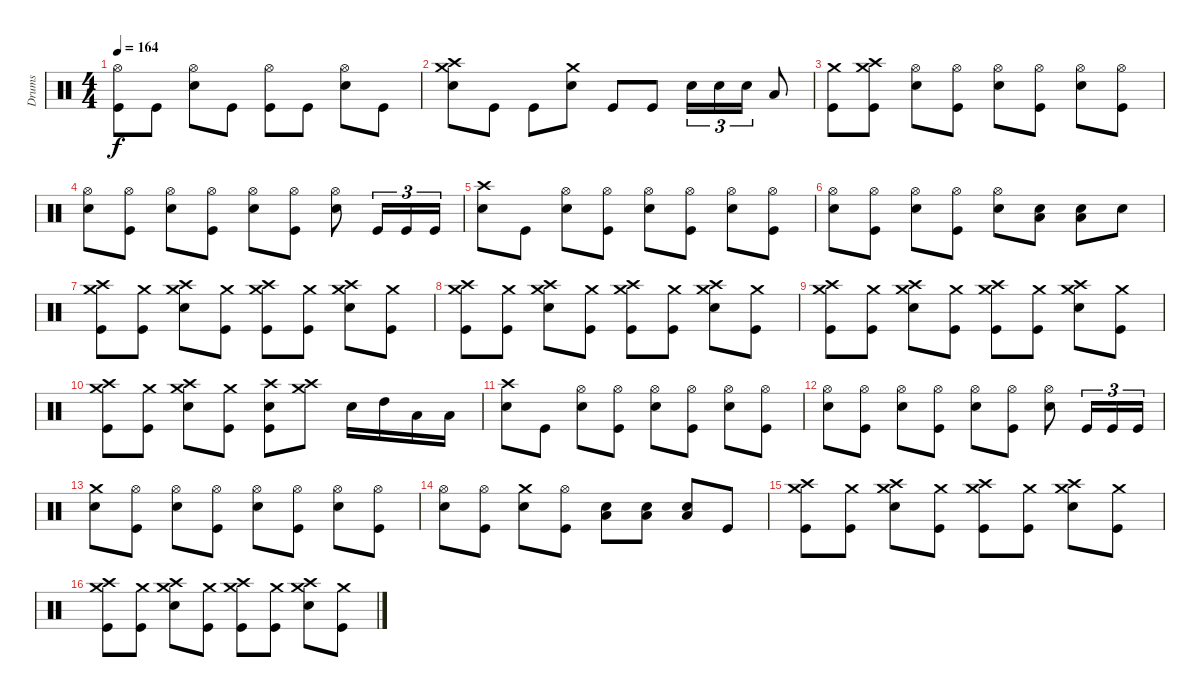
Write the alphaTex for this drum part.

\track ("Drums" "Drums") {instrument percussion}
\staff {score}
\articulation defaults
\ts (4 4)
\tempo 164
\clef neutral
\ks c
("Hi-Hat (open)" "Kick (hit)").8{dy f} "Kick (hit)".8 ("Snare (hit) 2" "Hi-Hat (open)").8 "Kick (hit)".8 ("Hi-Hat (open)" "Kick (hit)").8 "Kick (hit)".8 ("Snare (hit) 2" "Hi-Hat (open)").8 "Kick (hit)".8 |
("Snare (hit) 2" "Crash medium (hit)" "Crash high (hit)").8 "Kick (hit)".8 "Kick (hit)".8 ("Snare (hit) 2" "Crash medium (hit)").8 "Kick (hit)".8 "Kick (hit)".8 "Snare (hit) 2".16{tu (3 2)} "Snare (hit) 2".16{tu (3 2)} "Snare (hit) 2".16{tu (3 2)} "Low Tom (hit)".8 |
("Crash medium (hit)" "Kick (hit)").8 ("Crash medium (hit)" "Kick (hit)" "Crash high (hit)").8 ("Snare (hit) 2" "Hi-Hat (open)").8 ("Hi-Hat (open)" "Kick (hit)").8 ("Snare (hit) 2" "Hi-Hat (open)").8 ("Hi-Hat (open)" "Kick (hit)").8 ("Snare (hit) 2" "Hi-Hat (open)").8 ("Hi-Hat (open)" "Kick (hit)").8 |
("Snare (hit) 2" "Hi-Hat (open)").8 ("Hi-Hat (open)" "Kick (hit)").8 ("Snare (hit) 2" "Hi-Hat (open)").8 ("Hi-Hat (open)" "Kick (hit)").8 ("Snare (hit) 2" "Hi-Hat (open)").8 ("Hi-Hat (open)" "Kick (hit)").8 ("Snare (hit) 2" "Hi-Hat (open)").8 "Kick (hit)".16{tu (3 2)} "Kick (hit)".16{tu (3 2)} "Kick (hit)".16{tu (3 2)} |
("Snare (hit) 2" "Crash high (hit)").8 "Kick (hit)".8 ("Snare (hit) 2" "Hi-Hat (open)").8 ("Hi-Hat (open)" "Kick (hit)").8 ("Snare (hit) 2" "Hi-Hat (open)").8 ("Hi-Hat (open)" "Kick (hit)").8 ("Snare (hit) 2" "Hi-Hat (open)").8 ("Hi-Hat (open)" "Kick (hit)").8 |
("Snare (hit) 2" "Hi-Hat (open)").8 ("Hi-Hat (open)" "Kick (hit)").8 ("Snare (hit) 2" "Hi-Hat (open)").8 ("Hi-Hat (open)" "Kick (hit)").8 ("Snare (hit) 2" "Hi-Hat (open)").8 ("Snare (hit) 2" "Low Floor Tom (hit)").8 ("Snare (hit) 2" "Low Floor Tom (hit)").8 "Snare (hit) 2".8 |
("Crash medium (hit)" "Kick (hit)" "Crash high (hit)").8 ("Crash medium (hit)" "Kick (hit)").8 ("Snare (hit) 2" "Crash medium (hit)" "Crash high (hit)").8 ("Crash medium (hit)" "Kick (hit)").8 ("Crash medium (hit)" "Kick (hit)" "Crash high (hit)").8 ("Crash medium (hit)" "Kick (hit)").8 ("Snare (hit) 2" "Crash medium (hit)" "Crash high (hit)").8 ("Crash medium (hit)" "Kick (hit)").8 |
("Crash medium (hit)" "Kick (hit)" "Crash high (hit)").8 ("Crash medium (hit)" "Kick (hit)").8 ("Snare (hit) 2" "Crash medium (hit)" "Crash high (hit)").8 ("Crash medium (hit)" "Kick (hit)").8 ("Crash medium (hit)" "Kick (hit)" "Crash high (hit)").8 ("Crash medium (hit)" "Kick (hit)").8 ("Snare (hit) 2" "Crash medium (hit)" "Crash high (hit)").8 ("Crash medium (hit)" "Kick (hit)").8 |
("Crash medium (hit)" "Kick (hit)" "Crash high (hit)").8 ("Crash medium (hit)" "Kick (hit)").8 ("Snare (hit) 2" "Crash medium (hit)" "Crash high (hit)").8 ("Crash medium (hit)" "Kick (hit)").8 ("Crash medium (hit)" "Kick (hit)" "Crash high (hit)").8 ("Crash medium (hit)" "Kick (hit)").8 ("Snare (hit) 2" "Crash medium (hit)" "Crash high (hit)").8 ("Crash medium (hit)" "Kick (hit)").8 |
("Crash medium (hit)" "Kick (hit)" "Crash high (hit)").8 ("Crash medium (hit)" "Kick (hit)").8 ("Snare (hit) 2" "Crash medium (hit)" "Crash high (hit)").8 ("Crash medium (hit)" "Kick (hit)").8 ("Snare (hit) 2" "Kick (hit)" "Crash high (hit)").8 ("Crash high (hit)" "Crash medium (hit)").8 "Snare (hit) 2".16 "High Tom (hit)".16 "Low Tom (hit)".16 "Low Floor Tom (hit)".16 |
("Snare (hit) 2" "Crash high (hit)").8 "Kick (hit)".8 ("Snare (hit) 2" "Hi-Hat (open)").8 ("Hi-Hat (open)" "Kick (hit)").8 ("Snare (hit) 2" "Hi-Hat (open)").8 ("Hi-Hat (open)" "Kick (hit)").8 ("Snare (hit) 2" "Hi-Hat (open)").8 ("Hi-Hat (open)" "Kick (hit)").8 |
("Snare (hit) 2" "Hi-Hat (open)").8 ("Hi-Hat (open)" "Kick (hit)").8 ("Snare (hit) 2" "Hi-Hat (open)").8 ("Hi-Hat (open)" "Kick (hit)").8 ("Snare (hit) 2" "Hi-Hat (open)").8 ("Hi-Hat (open)" "Kick (hit)").8 ("Snare (hit) 2" "Hi-Hat (open)").8 "Kick (hit)".16{tu (3 2)} "Kick (hit)".16{tu (3 2)} "Kick (hit)".16{tu (3 2)} |
("Snare (hit) 2" "Crash medium (hit)").8 ("Hi-Hat (open)" "Kick (hit)").8 ("Snare (hit) 2" "Hi-Hat (open)").8 ("Hi-Hat (open)" "Kick (hit)").8 ("Snare (hit) 2" "Hi-Hat (open)").8 ("Hi-Hat (open)" "Kick (hit)").8 ("Snare (hit) 2" "Hi-Hat (open)").8 ("Hi-Hat (open)" "Kick (hit)").8 |
("Snare (hit) 2" "Hi-Hat (open)").8 ("Hi-Hat (open)" "Kick (hit)").8 ("Snare (hit) 2" "Crash medium (hit)").8 ("Hi-Hat (open)" "Kick (hit)").8 ("Snare (hit) 2" "Low Floor Tom (hit)").8 ("Snare (hit) 2" "Low Floor Tom (hit)").8 ("Snare (hit) 2" "Low Floor Tom (hit)").8 "Kick (hit)".8 |
("Crash medium (hit)" "Kick (hit)" "Crash high (hit)").8 ("Crash medium (hit)" "Kick (hit)").8 ("Snare (hit) 2" "Crash medium (hit)" "Crash high (hit)").8 ("Crash medium (hit)" "Kick (hit)").8 ("Crash medium (hit)" "Kick (hit)" "Crash high (hit)").8 ("Crash medium (hit)" "Kick (hit)").8 ("Snare (hit) 2" "Crash medium (hit)" "Crash high (hit)").8 ("Crash medium (hit)" "Kick (hit)").8 |
("Crash medium (hit)" "Kick (hit)" "Crash high (hit)").8 ("Crash medium (hit)" "Kick (hit)").8 ("Snare (hit) 2" "Crash medium (hit)" "Crash high (hit)").8 ("Crash medium (hit)" "Kick (hit)").8 ("Crash medium (hit)" "Kick (hit)" "Crash high (hit)").8 ("Crash medium (hit)" "Kick (hit)").8 ("Snare (hit) 2" "Crash medium (hit)" "Crash high (hit)").8 ("Crash medium (hit)" "Kick (hit)").8
